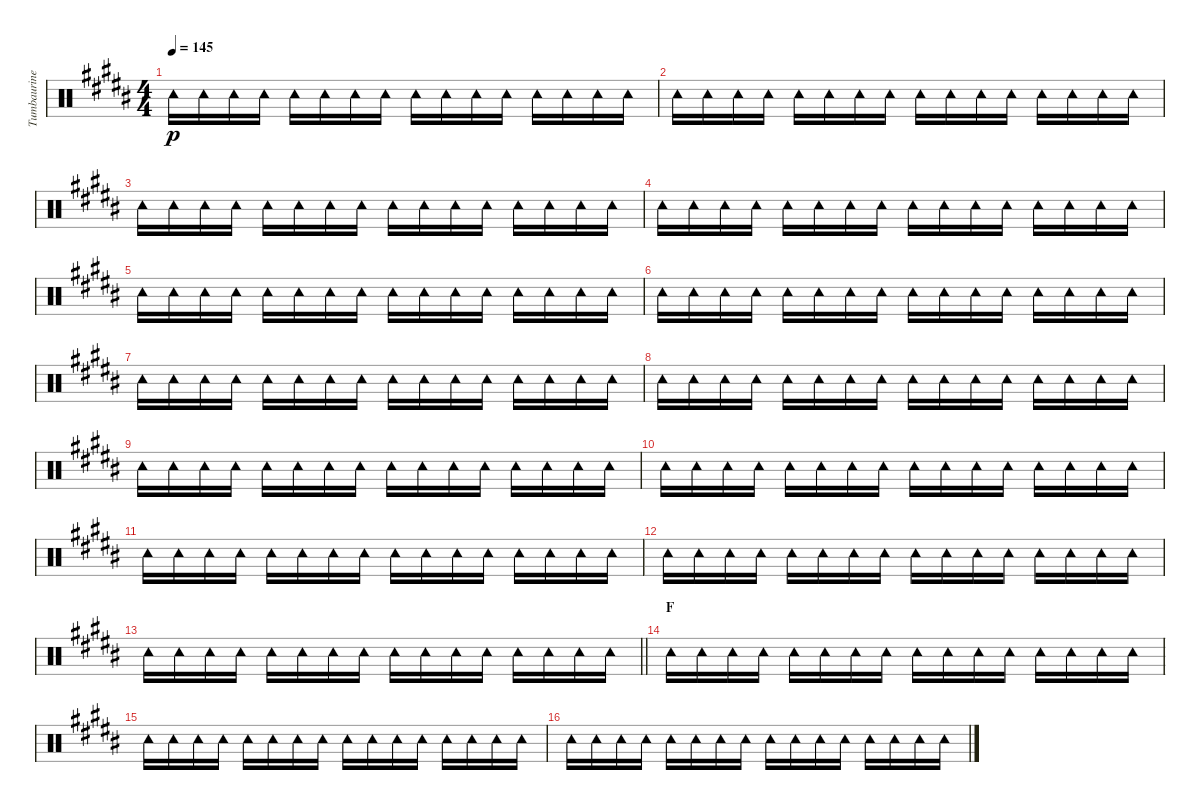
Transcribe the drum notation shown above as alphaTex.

\track ("Tumbaurine" "Tumbaurine") {instrument percussion}
\staff {score}
\articulation defaults
\ts (4 4)
\tempo 145
\clef neutral
\ks b "Tambourine (hit)".16{dy p} "Tambourine (hit)".16 "Tambourine (hit)".16 "Tambourine (hit)".16 "Tambourine (hit)".16 "Tambourine (hit)".16 "Tambourine (hit)".16 "Tambourine (hit)".16 "Tambourine (hit)".16 "Tambourine (hit)".16 "Tambourine (hit)".16 "Tambourine (hit)".16 "Tambourine (hit)".16 "Tambourine (hit)".16 "Tambourine (hit)".16 "Tambourine (hit)".16
|
"Tambourine (hit)".16 "Tambourine (hit)".16 "Tambourine (hit)".16 "Tambourine (hit)".16 "Tambourine (hit)".16 "Tambourine (hit)".16 "Tambourine (hit)".16 "Tambourine (hit)".16 "Tambourine (hit)".16 "Tambourine (hit)".16 "Tambourine (hit)".16 "Tambourine (hit)".16 "Tambourine (hit)".16 "Tambourine (hit)".16 "Tambourine (hit)".16 "Tambourine (hit)".16 |
"Tambourine (hit)".16 "Tambourine (hit)".16 "Tambourine (hit)".16 "Tambourine (hit)".16 "Tambourine (hit)".16 "Tambourine (hit)".16 "Tambourine (hit)".16 "Tambourine (hit)".16 "Tambourine (hit)".16 "Tambourine (hit)".16 "Tambourine (hit)".16 "Tambourine (hit)".16 "Tambourine (hit)".16 "Tambourine (hit)".16 "Tambourine (hit)".16 "Tambourine (hit)".16 |
"Tambourine (hit)".16 "Tambourine (hit)".16 "Tambourine (hit)".16 "Tambourine (hit)".16 "Tambourine (hit)".16 "Tambourine (hit)".16 "Tambourine (hit)".16 "Tambourine (hit)".16 "Tambourine (hit)".16 "Tambourine (hit)".16 "Tambourine (hit)".16 "Tambourine (hit)".16 "Tambourine (hit)".16 "Tambourine (hit)".16 "Tambourine (hit)".16 "Tambourine (hit)".16 |
"Tambourine (hit)".16 "Tambourine (hit)".16 "Tambourine (hit)".16 "Tambourine (hit)".16 "Tambourine (hit)".16 "Tambourine (hit)".16 "Tambourine (hit)".16 "Tambourine (hit)".16 "Tambourine (hit)".16 "Tambourine (hit)".16 "Tambourine (hit)".16 "Tambourine (hit)".16 "Tambourine (hit)".16 "Tambourine (hit)".16 "Tambourine (hit)".16 "Tambourine (hit)".16 |
"Tambourine (hit)".16 "Tambourine (hit)".16 "Tambourine (hit)".16 "Tambourine (hit)".16 "Tambourine (hit)".16 "Tambourine (hit)".16 "Tambourine (hit)".16 "Tambourine (hit)".16 "Tambourine (hit)".16 "Tambourine (hit)".16 "Tambourine (hit)".16 "Tambourine (hit)".16 "Tambourine (hit)".16 "Tambourine (hit)".16 "Tambourine (hit)".16 "Tambourine (hit)".16 |
"Tambourine (hit)".16 "Tambourine (hit)".16 "Tambourine (hit)".16 "Tambourine (hit)".16 "Tambourine (hit)".16 "Tambourine (hit)".16 "Tambourine (hit)".16 "Tambourine (hit)".16 "Tambourine (hit)".16 "Tambourine (hit)".16 "Tambourine (hit)".16 "Tambourine (hit)".16 "Tambourine (hit)".16 "Tambourine (hit)".16 "Tambourine (hit)".16 "Tambourine (hit)".16 |
"Tambourine (hit)".16 "Tambourine (hit)".16 "Tambourine (hit)".16 "Tambourine (hit)".16 "Tambourine (hit)".16 "Tambourine (hit)".16 "Tambourine (hit)".16 "Tambourine (hit)".16 "Tambourine (hit)".16 "Tambourine (hit)".16 "Tambourine (hit)".16 "Tambourine (hit)".16 "Tambourine (hit)".16 "Tambourine (hit)".16 "Tambourine (hit)".16 "Tambourine (hit)".16 |
"Tambourine (hit)".16 "Tambourine (hit)".16 "Tambourine (hit)".16 "Tambourine (hit)".16 "Tambourine (hit)".16 "Tambourine (hit)".16 "Tambourine (hit)".16 "Tambourine (hit)".16 "Tambourine (hit)".16 "Tambourine (hit)".16 "Tambourine (hit)".16 "Tambourine (hit)".16 "Tambourine (hit)".16 "Tambourine (hit)".16 "Tambourine (hit)".16 "Tambourine (hit)".16 |
"Tambourine (hit)".16 "Tambourine (hit)".16 "Tambourine (hit)".16 "Tambourine (hit)".16 "Tambourine (hit)".16 "Tambourine (hit)".16 "Tambourine (hit)".16 "Tambourine (hit)".16 "Tambourine (hit)".16 "Tambourine (hit)".16 "Tambourine (hit)".16 "Tambourine (hit)".16 "Tambourine (hit)".16 "Tambourine (hit)".16 "Tambourine (hit)".16 "Tambourine (hit)".16 |
"Tambourine (hit)".16 "Tambourine (hit)".16 "Tambourine (hit)".16 "Tambourine (hit)".16 "Tambourine (hit)".16 "Tambourine (hit)".16 "Tambourine (hit)".16 "Tambourine (hit)".16 "Tambourine (hit)".16 "Tambourine (hit)".16 "Tambourine (hit)".16 "Tambourine (hit)".16 "Tambourine (hit)".16 "Tambourine (hit)".16 "Tambourine (hit)".16 "Tambourine (hit)".16 |
"Tambourine (hit)".16 "Tambourine (hit)".16 "Tambourine (hit)".16 "Tambourine (hit)".16 "Tambourine (hit)".16 "Tambourine (hit)".16 "Tambourine (hit)".16 "Tambourine (hit)".16 "Tambourine (hit)".16 "Tambourine (hit)".16 "Tambourine (hit)".16 "Tambourine (hit)".16 "Tambourine (hit)".16 "Tambourine (hit)".16 "Tambourine (hit)".16 "Tambourine (hit)".16 |
\barLineRight lightlight "Tambourine (hit)".16 "Tambourine (hit)".16 "Tambourine (hit)".16 "Tambourine (hit)".16 "Tambourine (hit)".16 "Tambourine (hit)".16 "Tambourine (hit)".16 "Tambourine (hit)".16 "Tambourine (hit)".16 "Tambourine (hit)".16 "Tambourine (hit)".16 "Tambourine (hit)".16 "Tambourine (hit)".16 "Tambourine (hit)".16 "Tambourine (hit)".16 "Tambourine (hit)".16
|
\section ("" "F")
"Tambourine (hit)".16 "Tambourine (hit)".16 "Tambourine (hit)".16 "Tambourine (hit)".16 "Tambourine (hit)".16 "Tambourine (hit)".16 "Tambourine (hit)".16 "Tambourine (hit)".16 "Tambourine (hit)".16 "Tambourine (hit)".16 "Tambourine (hit)".16 "Tambourine (hit)".16 "Tambourine (hit)".16 "Tambourine (hit)".16 "Tambourine (hit)".16 "Tambourine (hit)".16 |
"Tambourine (hit)".16 "Tambourine (hit)".16 "Tambourine (hit)".16 "Tambourine (hit)".16 "Tambourine (hit)".16 "Tambourine (hit)".16 "Tambourine (hit)".16 "Tambourine (hit)".16 "Tambourine (hit)".16 "Tambourine (hit)".16 "Tambourine (hit)".16 "Tambourine (hit)".16 "Tambourine (hit)".16 "Tambourine (hit)".16 "Tambourine (hit)".16 "Tambourine (hit)".16 |
"Tambourine (hit)".16 "Tambourine (hit)".16 "Tambourine (hit)".16 "Tambourine (hit)".16 "Tambourine (hit)".16 "Tambourine (hit)".16 "Tambourine (hit)".16 "Tambourine (hit)".16 "Tambourine (hit)".16 "Tambourine (hit)".16 "Tambourine (hit)".16 "Tambourine (hit)".16 "Tambourine (hit)".16 "Tambourine (hit)".16 "Tambourine (hit)".16 "Tambourine (hit)".16
